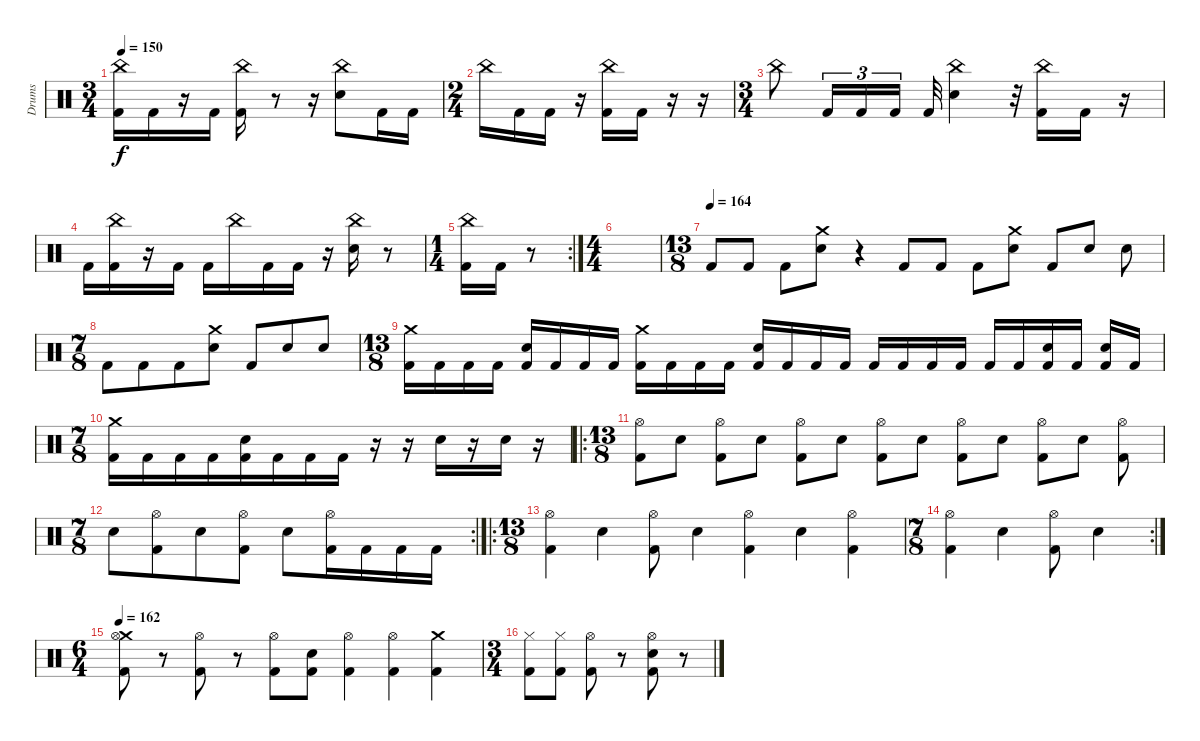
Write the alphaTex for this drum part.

\track ("Drums" "Drums") {instrument percussion}
\staff {score}
\articulation defaults
\ts (3 4)
\tempo 150
\clef neutral
\ks c
("China (hit)" "Kick (hit) 2").16{dy f} "Kick (hit) 2".16 r.16 "Kick (hit) 2".16 ("China (hit)" "Kick (hit) 2").16 r.8 r.16 ("China (hit)" "Electric Snare (hit)").8 "Kick (hit) 2".16 "Kick (hit) 2".16 |
\ts (2 4)
"China (hit)".16 "Kick (hit) 2".16 "Kick (hit) 2".16 r.16 ("China (hit)" "Kick (hit) 2").16 "Kick (hit) 2".16 r.16 r.16 |
\ts (3 4)
"China (hit)".8 "Kick (hit) 2".16{tu (3 2)} "Kick (hit) 2".16{tu (3 2)} "Kick (hit) 2".16{tu (3 2)} "Kick (hit) 2".32 ("China (hit)" "Electric Snare (hit)").4 r.32 ("China (hit)" "Kick (hit) 2").16 "Kick (hit) 2".16 r.16 |
"Kick (hit) 2".16 ("China (hit)" "Kick (hit) 2").16 r.16 "Kick (hit) 2".16 "Kick (hit) 2".16 "China (hit)".16 "Kick (hit) 2".16 "Kick (hit) 2".16 r.16 ("China (hit)" "Electric Snare (hit)").16 r.8 |
\rc 2
\ts (1 4)
("China (hit)" "Kick (hit) 2").16 "Kick (hit) 2".16 r.8 |
\ts (4 4)
|
\ts (13 8)
\tempo (164)
"Kick (hit) 2".8 "Kick (hit) 2".8 "Kick (hit) 2".8 ("Crash medium (hit)" "Electric Snare (hit)").8 r.4 "Kick (hit) 2".8 "Kick (hit) 2".8 "Kick (hit) 2".8 ("Crash medium (hit)" "Electric Snare (hit)").8 "Kick (hit) 2".8 "Electric Snare (hit)".8 "Electric Snare (hit)".8 |
\ts (7 8)
"Kick (hit) 2".8 "Kick (hit) 2".8 "Kick (hit) 2".8 ("Crash medium (hit)" "Electric Snare (hit)").8 "Kick (hit) 2".8 "Electric Snare (hit)".8 "Electric Snare (hit)".8 |
\ts (13 8)
("Crash medium (hit)" "Kick (hit) 2").16 "Kick (hit) 2".16 "Kick (hit) 2".16 "Kick (hit) 2".16 ("Electric Snare (hit)" "Kick (hit) 2").16 "Kick (hit) 2".16 "Kick (hit) 2".16 "Kick (hit) 2".16 ("Crash medium (hit)" "Kick (hit) 2").16 "Kick (hit) 2".16 "Kick (hit) 2".16 "Kick (hit) 2".16 ("Electric Snare (hit)" "Kick (hit) 2").16 "Kick (hit) 2".16 "Kick (hit) 2".16 "Kick (hit) 2".16 "Kick (hit) 2".16 "Kick (hit) 2".16 "Kick (hit) 2".16 "Kick (hit) 2".16 "Kick (hit) 2".16 "Kick (hit) 2".16 ("Electric Snare (hit)" "Kick (hit) 2").16 "Kick (hit) 2".16 ("Electric Snare (hit)" "Kick (hit) 2").16 "Kick (hit) 2".16 |
\ts (7 8)
("Crash medium (hit)" "Kick (hit) 2").16 "Kick (hit) 2".16 "Kick (hit) 2".16 "Kick (hit) 2".16 ("Electric Snare (hit)" "Kick (hit) 2").16 "Kick (hit) 2".16 "Kick (hit) 2".16 "Kick (hit) 2".16 r.16 r.16 "Electric Snare (hit)".16 r.16 "Electric Snare (hit)".16 r.16 |
\ro
\ts (13 8)
("Hi-Hat (open)" "Kick (hit) 2").8 "Electric Snare (hit)".8 ("Hi-Hat (open)" "Kick (hit) 2").8 "Electric Snare (hit)".8 ("Hi-Hat (open)" "Kick (hit) 2").8 "Electric Snare (hit)".8 ("Hi-Hat (open)" "Kick (hit) 2").8 "Electric Snare (hit)".8 ("Hi-Hat (open)" "Kick (hit) 2").8 "Electric Snare (hit)".8 ("Hi-Hat (open)" "Kick (hit) 2").8 "Electric Snare (hit)".8 ("Hi-Hat (open)" "Kick (hit) 2").8 |
\rc 2
\ts (7 8)
"Electric Snare (hit)".8 ("Hi-Hat (open)" "Kick (hit) 2").8 "Electric Snare (hit)".8 ("Hi-Hat (open)" "Kick (hit) 2").8 "Electric Snare (hit)".8 ("Hi-Hat (open)" "Kick (hit) 2").16 "Kick (hit) 2".16 "Kick (hit) 2".16 "Kick (hit) 2".16 |
\ro
\ts (13 8)
("Hi-Hat (open)" "Kick (hit) 2").4 "Electric Snare (hit)".4 ("Hi-Hat (open)" "Kick (hit) 2").8 "Electric Snare (hit)".4 ("Hi-Hat (open)" "Kick (hit) 2").4 "Electric Snare (hit)".4 ("Hi-Hat (open)" "Kick (hit) 2").4 |
\rc 2
\ts (7 8)
("Hi-Hat (open)" "Kick (hit) 2").4 "Electric Snare (hit)".4 ("Hi-Hat (open)" "Kick (hit) 2").8 "Electric Snare (hit)".4 |
\ts (6 4)
\tempo 162
("Crash medium (hit)" "Hi-Hat (open)" "Kick (hit) 2").8 r.8 ("Hi-Hat (open)" "Kick (hit) 2").8 r.8 ("Hi-Hat (open)" "Kick (hit) 2").8 ("Electric Snare (hit)" "Kick (hit) 2").8 ("Hi-Hat (open)" "Kick (hit) 2").4 ("Hi-Hat (open)" "Kick (hit) 2").4 ("Crash medium (hit)" "Kick (hit) 2").4 |
\ts (3 4)
("Hi-Hat (closed)" "Kick (hit) 2").8 ("Hi-Hat (closed)" "Kick (hit) 2").8 ("Hi-Hat (open)" "Kick (hit) 2").8 r.8 ("Hi-Hat (open)" "Electric Snare (hit)" "Kick (hit) 2").8 r.8
